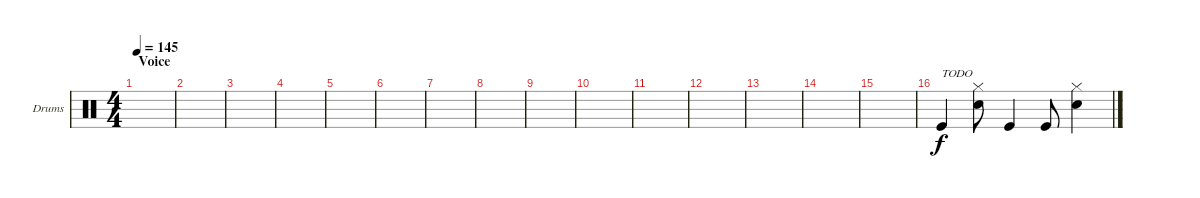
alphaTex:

\bracketExtendMode groupsimilarinstruments
\firstSystemTrackNameOrientation horizontal
\otherSystemsTrackNameOrientation horizontal
\track ("Drumkit" "Drums") {solo instrument percussion}
\staff {score}
\articulation defaults
\ts (4 4)
\section ("" "Voice")
\tempo 145
\clef neutral
\ks c
|
|
|
|
|
|
|
|
|
|
|
|
|
|
|
"Kick (hit)".4{txt "TODO"} ("Snare (hit) 2" "Hi-Hat (closed)").8 "Kick (hit)".4 "Kick (hit)".8 ("Snare (hit) 2" "Hi-Hat (closed)").4
